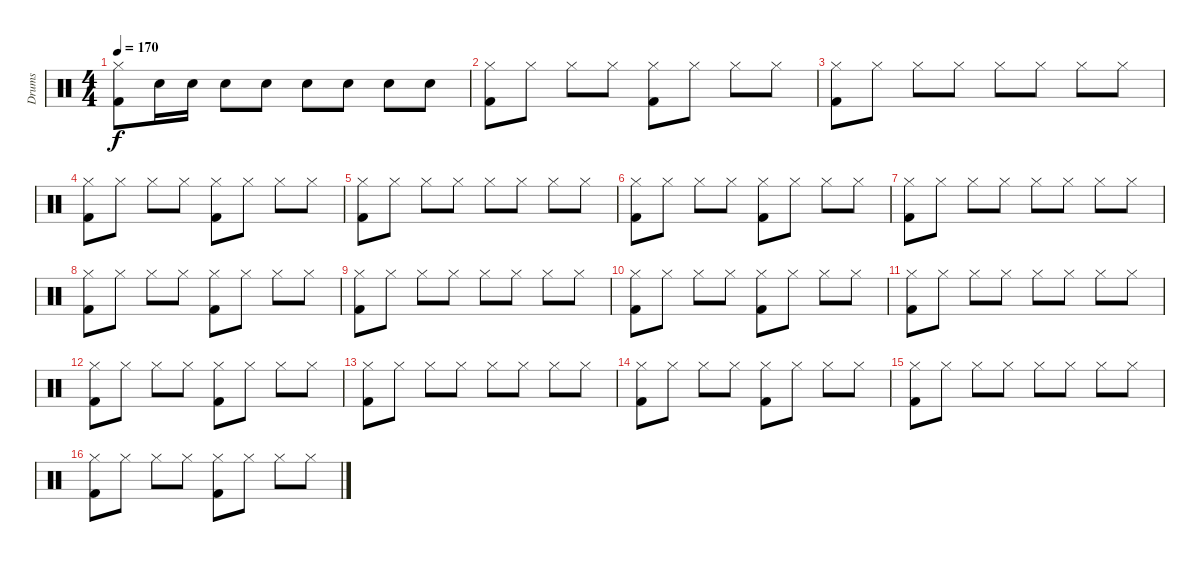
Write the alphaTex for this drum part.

\track ("Drums" "Drums") {instrument percussion}
\staff {score}
\articulation defaults
\ts (4 4)
\tempo 170
\clef neutral
\ks c
("Kick (hit) 2" "Hi-Hat (closed)").8{dy f} "Snare (hit) 2".16 "Snare (hit) 2".16 "Snare (hit) 2".8 "Snare (hit) 2".8 "Snare (hit) 2".8 "Snare (hit) 2".8 "Snare (hit) 2".8 "Snare (hit) 2".8 |
("Kick (hit) 2" "Hi-Hat (closed)").8 "Hi-Hat (closed)".8 "Hi-Hat (closed)".8 "Hi-Hat (closed)".8 ("Kick (hit) 2" "Hi-Hat (closed)").8 "Hi-Hat (closed)".8 "Hi-Hat (closed)".8 "Hi-Hat (closed)".8 |
("Kick (hit) 2" "Hi-Hat (closed)").8 "Hi-Hat (closed)".8 "Hi-Hat (closed)".8 "Hi-Hat (closed)".8 "Hi-Hat (closed)".8 "Hi-Hat (closed)".8 "Hi-Hat (closed)".8 "Hi-Hat (closed)".8 |
("Kick (hit) 2" "Hi-Hat (closed)").8 "Hi-Hat (closed)".8 "Hi-Hat (closed)".8 "Hi-Hat (closed)".8 ("Kick (hit) 2" "Hi-Hat (closed)").8 "Hi-Hat (closed)".8 "Hi-Hat (closed)".8 "Hi-Hat (closed)".8 |
("Kick (hit) 2" "Hi-Hat (closed)").8 "Hi-Hat (closed)".8 "Hi-Hat (closed)".8 "Hi-Hat (closed)".8 "Hi-Hat (closed)".8 "Hi-Hat (closed)".8 "Hi-Hat (closed)".8 "Hi-Hat (closed)".8 |
("Kick (hit) 2" "Hi-Hat (closed)").8 "Hi-Hat (closed)".8 "Hi-Hat (closed)".8 "Hi-Hat (closed)".8 ("Kick (hit) 2" "Hi-Hat (closed)").8 "Hi-Hat (closed)".8 "Hi-Hat (closed)".8 "Hi-Hat (closed)".8 |
("Kick (hit) 2" "Hi-Hat (closed)").8 "Hi-Hat (closed)".8 "Hi-Hat (closed)".8 "Hi-Hat (closed)".8 "Hi-Hat (closed)".8 "Hi-Hat (closed)".8 "Hi-Hat (closed)".8 "Hi-Hat (closed)".8 |
("Kick (hit) 2" "Hi-Hat (closed)").8 "Hi-Hat (closed)".8 "Hi-Hat (closed)".8 "Hi-Hat (closed)".8 ("Kick (hit) 2" "Hi-Hat (closed)").8 "Hi-Hat (closed)".8 "Hi-Hat (closed)".8 "Hi-Hat (closed)".8 |
("Kick (hit) 2" "Hi-Hat (closed)").8 "Hi-Hat (closed)".8 "Hi-Hat (closed)".8 "Hi-Hat (closed)".8 "Hi-Hat (closed)".8 "Hi-Hat (closed)".8 "Hi-Hat (closed)".8 "Hi-Hat (closed)".8 |
("Kick (hit) 2" "Hi-Hat (closed)").8 "Hi-Hat (closed)".8 "Hi-Hat (closed)".8 "Hi-Hat (closed)".8 ("Kick (hit) 2" "Hi-Hat (closed)").8 "Hi-Hat (closed)".8 "Hi-Hat (closed)".8 "Hi-Hat (closed)".8 |
("Kick (hit) 2" "Hi-Hat (closed)").8 "Hi-Hat (closed)".8 "Hi-Hat (closed)".8 "Hi-Hat (closed)".8 "Hi-Hat (closed)".8 "Hi-Hat (closed)".8 "Hi-Hat (closed)".8 "Hi-Hat (closed)".8 |
("Kick (hit) 2" "Hi-Hat (closed)").8 "Hi-Hat (closed)".8 "Hi-Hat (closed)".8 "Hi-Hat (closed)".8 ("Kick (hit) 2" "Hi-Hat (closed)").8 "Hi-Hat (closed)".8 "Hi-Hat (closed)".8 "Hi-Hat (closed)".8 |
("Kick (hit) 2" "Hi-Hat (closed)").8 "Hi-Hat (closed)".8 "Hi-Hat (closed)".8 "Hi-Hat (closed)".8 "Hi-Hat (closed)".8 "Hi-Hat (closed)".8 "Hi-Hat (closed)".8 "Hi-Hat (closed)".8 |
("Kick (hit) 2" "Hi-Hat (closed)").8 "Hi-Hat (closed)".8 "Hi-Hat (closed)".8 "Hi-Hat (closed)".8 ("Kick (hit) 2" "Hi-Hat (closed)").8 "Hi-Hat (closed)".8 "Hi-Hat (closed)".8 "Hi-Hat (closed)".8 |
("Kick (hit) 2" "Hi-Hat (closed)").8 "Hi-Hat (closed)".8 "Hi-Hat (closed)".8 "Hi-Hat (closed)".8 "Hi-Hat (closed)".8 "Hi-Hat (closed)".8 "Hi-Hat (closed)".8 "Hi-Hat (closed)".8 |
("Kick (hit) 2" "Hi-Hat (closed)").8 "Hi-Hat (closed)".8 "Hi-Hat (closed)".8 "Hi-Hat (closed)".8 ("Kick (hit) 2" "Hi-Hat (closed)").8 "Hi-Hat (closed)".8 "Hi-Hat (closed)".8 "Hi-Hat (closed)".8
